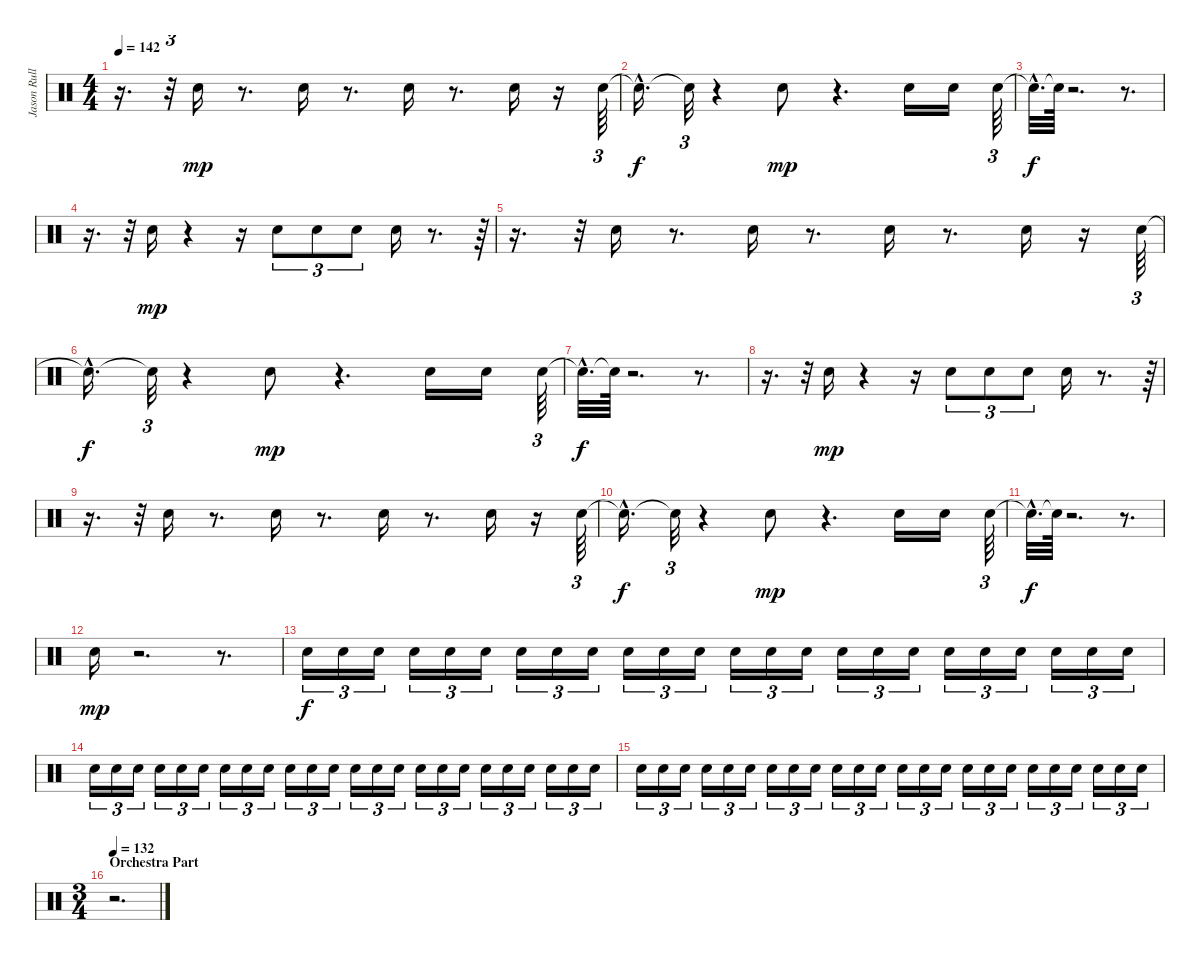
\track ("Jason Rullo" "Jason Rull") {instrument percussion}
\staff {score}
\articulation defaults
\ts (4 4)
\tempo 142
\clef neutral
\ks c
r.16{d dy mp} r.32{tu (3 2)} "Electric Snare (hit)".16 r.8{d} "Electric Snare (hit)".16 r.8{d} "Electric Snare (hit)".16 r.8{d} "Electric Snare (hit)".16 r.16 "Electric Snare (hit)".64{tu (3 2)} |
"Snare (hit)"{hac t}.16{d dy f} "Snare (hit)"{t}.32{tu (3 2)} r.4 "Electric Snare (hit)".8{dy mp} r.4{d} "Electric Snare (hit)".16 "Electric Snare (hit)".16 "Electric Snare (hit)".64{tu (3 2)} |
"Snare (hit)"{hac t}.32{d dy f} "Snare (hit)"{t}.64 r.2{d} r.8{d} |
r.16{d} r.32{tu (3 2)} "Electric Snare (hit)".16{dy mp} r.4 r.16 "Electric Snare (hit)".8{tu (3 2)} "Electric Snare (hit)".8{tu (3 2)} "Electric Snare (hit)".8{tu (3 2)} "Electric Snare (hit)".16 r.8{d} r.64{tu (3 2)} |
r.16{d} r.32{tu (3 2)} "Electric Snare (hit)".16 r.8{d} "Electric Snare (hit)".16 r.8{d} "Electric Snare (hit)".16 r.8{d} "Electric Snare (hit)".16 r.16 "Electric Snare (hit)".64{tu (3 2)} |
"Snare (hit)"{hac t}.16{d dy f} "Snare (hit)"{t}.32{tu (3 2)} r.4 "Electric Snare (hit)".8{dy mp} r.4{d} "Electric Snare (hit)".16 "Electric Snare (hit)".16 "Electric Snare (hit)".64{tu (3 2)} |
"Snare (hit)"{hac t}.32{d dy f} "Snare (hit)"{t}.64 r.2{d} r.8{d} |
r.16{d} r.32{tu (3 2)} "Electric Snare (hit)".16{dy mp} r.4 r.16 "Electric Snare (hit)".8{tu (3 2)} "Electric Snare (hit)".8{tu (3 2)} "Electric Snare (hit)".8{tu (3 2)} "Electric Snare (hit)".16 r.8{d} r.64{tu (3 2)} |
r.16{d} r.32{tu (3 2)} "Electric Snare (hit)".16 r.8{d} "Electric Snare (hit)".16 r.8{d} "Electric Snare (hit)".16 r.8{d} "Electric Snare (hit)".16 r.16 "Electric Snare (hit)".64{tu (3 2)} |
"Snare (hit)"{hac t}.16{d dy f} "Snare (hit)"{t}.32{tu (3 2)} r.4 "Electric Snare (hit)".8{dy mp} r.4{d} "Electric Snare (hit)".16 "Electric Snare (hit)".16 "Electric Snare (hit)".64{tu (3 2)} |
"Snare (hit)"{hac t}.32{d dy f} "Snare (hit)"{t}.64 r.2{d} r.8{d} |
"Electric Snare (hit)".16{dy mp} r.2{d} r.8{d} |
"Electric Snare (hit)".16{tu (3 2) dy f volume 0} "Electric Snare (hit)".16{tu (3 2) volume 0} "Electric Snare (hit)".16{tu (3 2) volume 0} "Electric Snare (hit)".16{tu (3 2) volume 1} "Electric Snare (hit)".16{tu (3 2) volume 1} "Electric Snare (hit)".16{tu (3 2) volume 1} "Electric Snare (hit)".16{tu (3 2) volume 1} "Electric Snare (hit)".16{tu (3 2) volume 1} "Electric Snare (hit)".16{tu (3 2) volume 2} "Electric Snare (hit)".16{tu (3 2) volume 2} "Electric Snare (hit)".16{tu (3 2) volume 2} "Electric Snare (hit)".16{tu (3 2) volume 2} "Electric Snare (hit)".16{tu (3 2) volume 2} "Electric Snare (hit)".16{tu (3 2) volume 3} "Electric Snare (hit)".16{tu (3 2) volume 3} "Electric Snare (hit)".16{tu (3 2) volume 3} "Electric Snare (hit)".16{tu (3 2) volume 3} "Electric Snare (hit)".16{tu (3 2) volume 4} "Electric Snare (hit)".16{tu (3 2) volume 4} "Electric Snare (hit)".16{tu (3 2) volume 4} "Electric Snare (hit)".16{tu (3 2) volume 4} "Electric Snare (hit)".16{tu (3 2) volume 4} "Electric Snare (hit)".16{tu (3 2) volume 4} "Electric Snare (hit)".16{tu (3 2) volume 5} |
"Electric Snare (hit)".16{tu (3 2) volume 5} "Electric Snare (hit)".16{tu (3 2) volume 5} "Electric Snare (hit)".16{tu (3 2) volume 5} "Electric Snare (hit)".16{tu (3 2) volume 6} "Electric Snare (hit)".16{tu (3 2) volume 6} "Electric Snare (hit)".16{tu (3 2) volume 6} "Electric Snare (hit)".16{tu (3 2) volume 6} "Electric Snare (hit)".16{tu (3 2) volume 6} "Electric Snare (hit)".16{tu (3 2) volume 7} "Electric Snare (hit)".16{tu (3 2) volume 7} "Electric Snare (hit)".16{tu (3 2) volume 7} "Electric Snare (hit)".16{tu (3 2) volume 7} "Electric Snare (hit)".16{tu (3 2) volume 7} "Electric Snare (hit)".16{tu (3 2) volume 8} "Electric Snare (hit)".16{tu (3 2) volume 8} "Electric Snare (hit)".16{tu (3 2) volume 8} "Electric Snare (hit)".16{tu (3 2) volume 8} "Electric Snare (hit)".16{tu (3 2) volume 8} "Electric Snare (hit)".16{tu (3 2) volume 9} "Electric Snare (hit)".16{tu (3 2) volume 9} "Electric Snare (hit)".16{tu (3 2) volume 9} "Electric Snare (hit)".16{tu (3 2) volume 9} "Electric Snare (hit)".16{tu (3 2) volume 10} "Electric Snare (hit)".16{tu (3 2) volume 10} |
"Electric Snare (hit)".16{tu (3 2) volume 10} "Electric Snare (hit)".16{tu (3 2) volume 10} "Electric Snare (hit)".16{tu (3 2) volume 10} "Electric Snare (hit)".16{tu (3 2) volume 10} "Electric Snare (hit)".16{tu (3 2) volume 11} "Electric Snare (hit)".16{tu (3 2) volume 11} "Electric Snare (hit)".16{tu (3 2) volume 11} "Electric Snare (hit)".16{tu (3 2) volume 11} "Electric Snare (hit)".16{tu (3 2) volume 12} "Electric Snare (hit)".16{tu (3 2) volume 12} "Electric Snare (hit)".16{tu (3 2) volume 12} "Electric Snare (hit)".16{tu (3 2) volume 12} "Electric Snare (hit)".16{tu (3 2) volume 12} "Electric Snare (hit)".16{tu (3 2) volume 12} "Electric Snare (hit)".16{tu (3 2) volume 13} "Electric Snare (hit)".16{tu (3 2) volume 13} "Electric Snare (hit)".16{tu (3 2) volume 13} "Electric Snare (hit)".16{tu (3 2) volume 13} "Electric Snare (hit)".16{tu (3 2) volume 14} "Electric Snare (hit)".16{tu (3 2) volume 14} "Electric Snare (hit)".16{tu (3 2) volume 14} "Electric Snare (hit)".16{tu (3 2) volume 14} "Electric Snare (hit)".16{tu (3 2) volume 14} "Electric Snare (hit)".16{tu (3 2) volume 15} |
\ts (3 4)
\section ("" "Orchestra Part")
\tempo 132
r.2{d}
